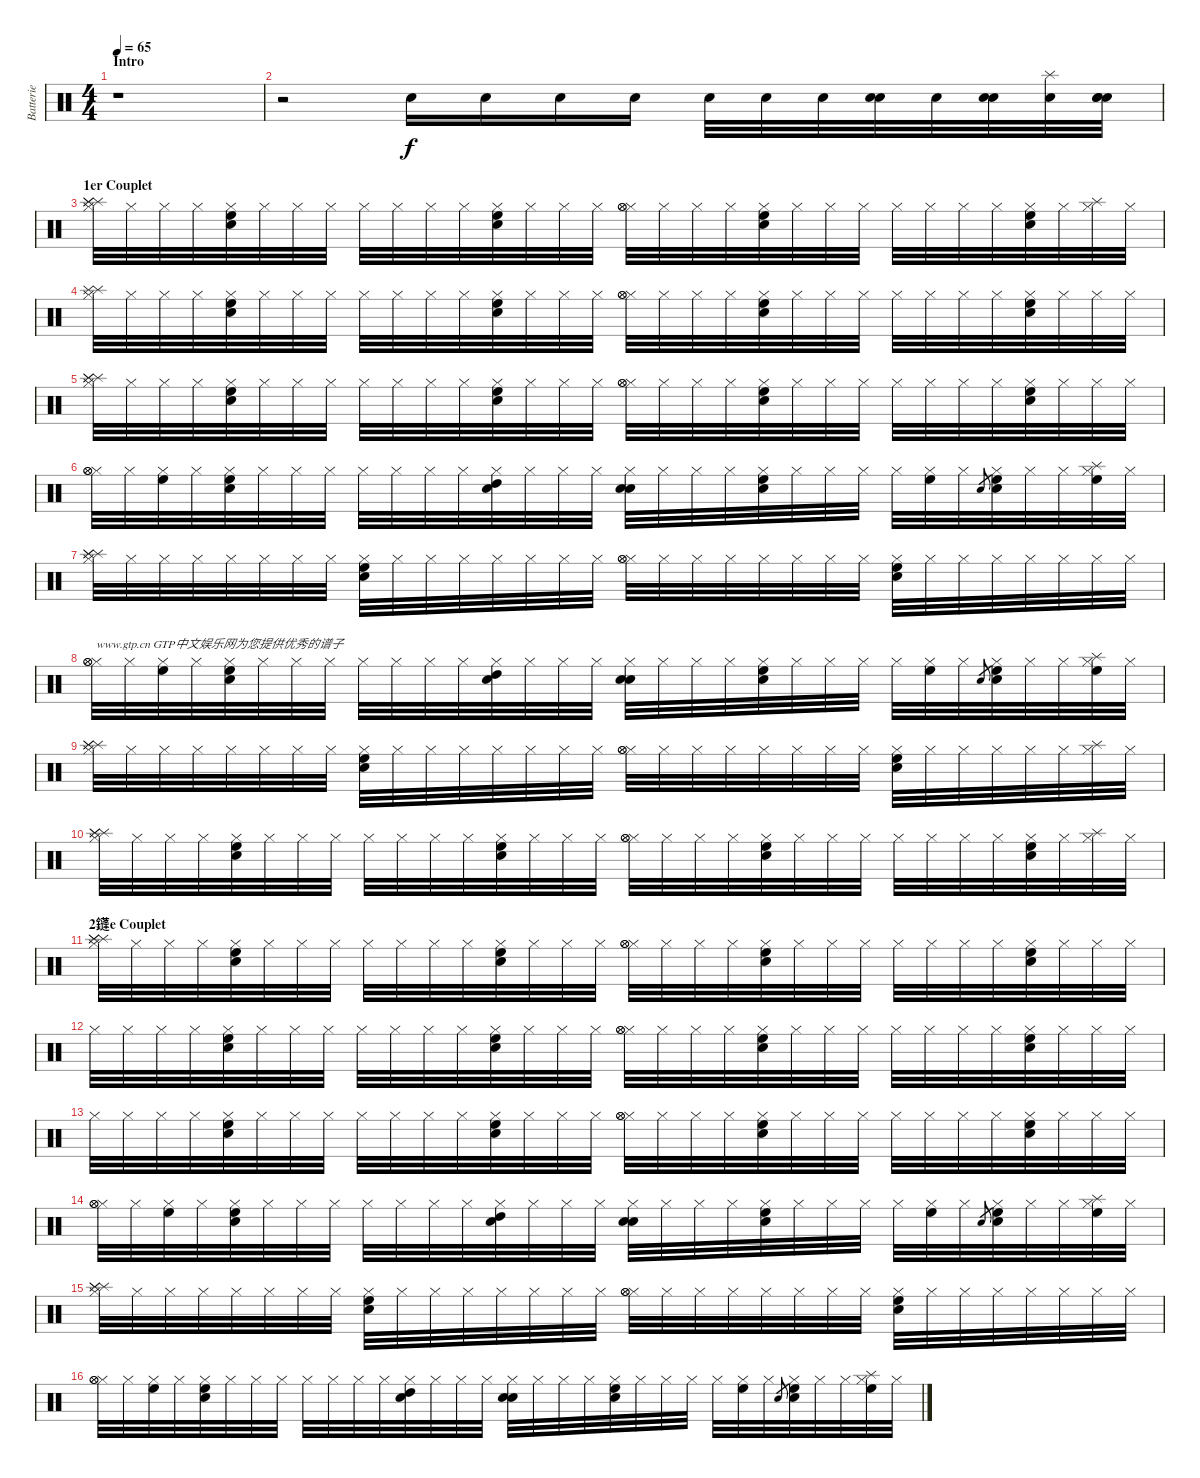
\track ("Batterie" "Batterie") {instrument percussion}
\staff {score}
\articulation defaults
\ts (4 4)
\section ("" "Intro")
\tempo 65
\clef neutral
\ks c
r.1{dy f} |
\section ("" "")
r.2 "Snare (hit) 2".16 "Snare (hit) 2".16 "Snare (hit) 2".16 "Snare (hit) 2".16 "Snare (hit) 2".32 "Snare (hit) 2".32 "Snare (hit) 2".32 ("Snare (hit) 2" "Snare (hit) 2").32 "Snare (hit) 2".32 ("Snare (hit) 2" "Snare (hit) 2").32 ("Snare (hit) 2" "Splash (hit)").32 ("Snare (hit) 2" "Snare (hit) 2" "Snare (hit) 2").32 |
\section ("" "1er Couplet")
("Hi-Hat (closed)" "Splash (hit)" "Splash (hit)" "Splash (hit)").32 "Hi-Hat (closed)".32 "Hi-Hat (closed)".32 "Hi-Hat (closed)".32 ("Hi-Hat (closed)" "Snare (hit) 2" "High Floor Tom (hit)").32 "Hi-Hat (closed)".32 "Hi-Hat (closed)".32 "Hi-Hat (closed)".32 "Hi-Hat (closed)".32 "Hi-Hat (closed)".32 "Hi-Hat (closed)".32 "Hi-Hat (closed)".32 ("Hi-Hat (closed)" "Snare (hit) 2" "High Floor Tom (hit)").32 "Hi-Hat (closed)".32 "Hi-Hat (closed)".32 "Hi-Hat (closed)".32 ("Hi-Hat (closed)" "Hi-Hat (open)" "Hi-Hat (open)").32 "Hi-Hat (closed)".32 "Hi-Hat (closed)".32 "Hi-Hat (closed)".32 ("Hi-Hat (closed)" "Snare (hit) 2" "High Floor Tom (hit)").32 "Hi-Hat (closed)".32 "Hi-Hat (closed)".32 "Hi-Hat (closed)".32 "Hi-Hat (closed)".32 "Hi-Hat (closed)".32 "Hi-Hat (closed)".32 "Hi-Hat (closed)".32 ("Hi-Hat (closed)" "Snare (hit) 2" "High Floor Tom (hit)").32 "Hi-Hat (closed)".32 ("Hi-Hat (closed)" "Splash (hit)").32 "Hi-Hat (closed)".32 |
("Hi-Hat (closed)" "Splash (hit)" "Splash (hit)").32 "Hi-Hat (closed)".32 "Hi-Hat (closed)".32 "Hi-Hat (closed)".32 ("Hi-Hat (closed)" "Snare (hit) 2" "High Floor Tom (hit)").32 "Hi-Hat (closed)".32 "Hi-Hat (closed)".32 "Hi-Hat (closed)".32 "Hi-Hat (closed)".32 "Hi-Hat (closed)".32 "Hi-Hat (closed)".32 "Hi-Hat (closed)".32 ("Hi-Hat (closed)" "Snare (hit) 2" "High Floor Tom (hit)").32 "Hi-Hat (closed)".32 "Hi-Hat (closed)".32 "Hi-Hat (closed)".32 ("Hi-Hat (closed)" "Hi-Hat (open)" "Hi-Hat (open)").32 "Hi-Hat (closed)".32 "Hi-Hat (closed)".32 "Hi-Hat (closed)".32 ("Hi-Hat (closed)" "Snare (hit) 2" "High Floor Tom (hit)").32 "Hi-Hat (closed)".32 "Hi-Hat (closed)".32 "Hi-Hat (closed)".32 "Hi-Hat (closed)".32 "Hi-Hat (closed)".32 "Hi-Hat (closed)".32 "Hi-Hat (closed)".32 ("Hi-Hat (closed)" "Snare (hit) 2" "High Floor Tom (hit)").32 "Hi-Hat (closed)".32 "Hi-Hat (closed)".32 "Hi-Hat (closed)".32 |
("Hi-Hat (closed)" "Splash (hit)" "Splash (hit)" "Splash (hit)").32 "Hi-Hat (closed)".32 "Hi-Hat (closed)".32 "Hi-Hat (closed)".32 ("Hi-Hat (closed)" "Snare (hit) 2" "High Floor Tom (hit)").32 "Hi-Hat (closed)".32 "Hi-Hat (closed)".32 "Hi-Hat (closed)".32 "Hi-Hat (closed)".32 "Hi-Hat (closed)".32 "Hi-Hat (closed)".32 "Hi-Hat (closed)".32 ("Hi-Hat (closed)" "Snare (hit) 2" "High Floor Tom (hit)").32 "Hi-Hat (closed)".32 "Hi-Hat (closed)".32 "Hi-Hat (closed)".32 ("Hi-Hat (closed)" "Hi-Hat (open)" "Hi-Hat (open)").32 "Hi-Hat (closed)".32 "Hi-Hat (closed)".32 "Hi-Hat (closed)".32 ("Hi-Hat (closed)" "Snare (hit) 2" "High Floor Tom (hit)").32 "Hi-Hat (closed)".32 "Hi-Hat (closed)".32 "Hi-Hat (closed)".32 "Hi-Hat (closed)".32 "Hi-Hat (closed)".32 "Hi-Hat (closed)".32 "Hi-Hat (closed)".32 ("Hi-Hat (closed)" "Snare (hit) 2" "High Floor Tom (hit)").32 "Hi-Hat (closed)".32 "Hi-Hat (closed)".32 "Hi-Hat (closed)".32 |
("Hi-Hat (closed)" "Hi-Hat (open)" "Hi-Hat (open)").32 "Hi-Hat (closed)".32 ("Hi-Hat (closed)" "High Floor Tom (hit)").32 "Hi-Hat (closed)".32 ("Hi-Hat (closed)" "Snare (hit) 2" "High Floor Tom (hit)").32 "Hi-Hat (closed)".32 "Hi-Hat (closed)".32 "Hi-Hat (closed)".32 "Hi-Hat (closed)".32 "Hi-Hat (closed)".32 "Hi-Hat (closed)".32 "Hi-Hat (closed)".32 ("Hi-Hat (closed)" "Snare (hit) 2" "High Tom (hit)").32 "Hi-Hat (closed)".32 "Hi-Hat (closed)".32 "Hi-Hat (closed)".32 ("Hi-Hat (closed)" "Snare (hit) 2" "Snare (hit) 2").32 "Hi-Hat (closed)".32 "Hi-Hat (closed)".32 "Hi-Hat (closed)".32 ("Hi-Hat (closed)" "Snare (hit) 2" "High Floor Tom (hit)").32 "Hi-Hat (closed)".32 "Hi-Hat (closed)".32 "Hi-Hat (closed)".32 "Hi-Hat (closed)".32 ("Hi-Hat (closed)" "High Floor Tom (hit)").32 "Hi-Hat (closed)".32 "Snare (hit) 2".8{gr} ("Hi-Hat (closed)" "Snare (hit) 2" "High Floor Tom (hit)").32 "Hi-Hat (closed)".32 "Hi-Hat (closed)".32 ("Hi-Hat (closed)" "Splash (hit)" "High Floor Tom (hit)").32 "Hi-Hat (closed)".32 |
("Hi-Hat (closed)" "Splash (hit)" "Splash (hit)" "Splash (hit)").32 "Hi-Hat (closed)".32 "Hi-Hat (closed)".32 "Hi-Hat (closed)".32 "Hi-Hat (closed)".32 "Hi-Hat (closed)".32 "Hi-Hat (closed)".32 "Hi-Hat (closed)".32 ("Hi-Hat (closed)" "Snare (hit) 2" "High Floor Tom (hit)").32 "Hi-Hat (closed)".32 "Hi-Hat (closed)".32 "Hi-Hat (closed)".32 "Hi-Hat (closed)".32 "Hi-Hat (closed)".32 "Hi-Hat (closed)".32 "Hi-Hat (closed)".32 ("Hi-Hat (closed)" "Hi-Hat (open)" "Hi-Hat (open)").32 "Hi-Hat (closed)".32 "Hi-Hat (closed)".32 "Hi-Hat (closed)".32 "Hi-Hat (closed)".32 "Hi-Hat (closed)".32 "Hi-Hat (closed)".32 "Hi-Hat (closed)".32 ("Hi-Hat (closed)" "Snare (hit) 2" "High Floor Tom (hit)").32 "Hi-Hat (closed)".32 "Hi-Hat (closed)".32 "Hi-Hat (closed)".32 "Hi-Hat (closed)".32 "Hi-Hat (closed)".32 "Hi-Hat (closed)".32 "Hi-Hat (closed)".32 |
("Hi-Hat (closed)" "Hi-Hat (open)" "Hi-Hat (open)").32{txt "www.gtp.cn GTP中文娱乐网为您提供优秀的谱子"} "Hi-Hat (closed)".32 ("Hi-Hat (closed)" "High Floor Tom (hit)").32 "Hi-Hat (closed)".32 ("Hi-Hat (closed)" "Snare (hit) 2" "High Floor Tom (hit)").32 "Hi-Hat (closed)".32 "Hi-Hat (closed)".32 "Hi-Hat (closed)".32 "Hi-Hat (closed)".32 "Hi-Hat (closed)".32 "Hi-Hat (closed)".32 "Hi-Hat (closed)".32 ("Hi-Hat (closed)" "Snare (hit) 2" "High Tom (hit)").32 "Hi-Hat (closed)".32 "Hi-Hat (closed)".32 "Hi-Hat (closed)".32 ("Hi-Hat (closed)" "Snare (hit) 2" "Snare (hit) 2").32 "Hi-Hat (closed)".32 "Hi-Hat (closed)".32 "Hi-Hat (closed)".32 ("Hi-Hat (closed)" "Snare (hit) 2" "High Floor Tom (hit)").32 "Hi-Hat (closed)".32 "Hi-Hat (closed)".32 "Hi-Hat (closed)".32 "Hi-Hat (closed)".32 ("Hi-Hat (closed)" "High Floor Tom (hit)").32 "Hi-Hat (closed)".32 "Snare (hit) 2".8{gr} ("Hi-Hat (closed)" "Snare (hit) 2" "High Floor Tom (hit)").32 "Hi-Hat (closed)".32 "Hi-Hat (closed)".32 ("Hi-Hat (closed)" "Splash (hit)" "High Floor Tom (hit)").32 "Hi-Hat (closed)".32 |
("Hi-Hat (closed)" "Splash (hit)" "Splash (hit)" "Splash (hit)").32 "Hi-Hat (closed)".32 "Hi-Hat (closed)".32 "Hi-Hat (closed)".32 "Hi-Hat (closed)".32 "Hi-Hat (closed)".32 "Hi-Hat (closed)".32 "Hi-Hat (closed)".32 ("Hi-Hat (closed)" "Snare (hit) 2" "High Floor Tom (hit)").32 "Hi-Hat (closed)".32 "Hi-Hat (closed)".32 "Hi-Hat (closed)".32 "Hi-Hat (closed)".32 "Hi-Hat (closed)".32 "Hi-Hat (closed)".32 "Hi-Hat (closed)".32 ("Hi-Hat (closed)" "Hi-Hat (open)" "Hi-Hat (open)").32 "Hi-Hat (closed)".32 "Hi-Hat (closed)".32 "Hi-Hat (closed)".32 "Hi-Hat (closed)".32 "Hi-Hat (closed)".32 "Hi-Hat (closed)".32 "Hi-Hat (closed)".32 ("Hi-Hat (closed)" "Snare (hit) 2" "High Floor Tom (hit)").32 "Hi-Hat (closed)".32 "Hi-Hat (closed)".32 "Hi-Hat (closed)".32 "Hi-Hat (closed)".32 "Hi-Hat (closed)".32 ("Hi-Hat (closed)" "Splash (hit)").32 "Hi-Hat (closed)".32 |
("Hi-Hat (closed)" "Splash (hit)" "Splash (hit)" "Splash (hit)").32 "Hi-Hat (closed)".32 "Hi-Hat (closed)".32 "Hi-Hat (closed)".32 ("Hi-Hat (closed)" "Snare (hit) 2" "High Floor Tom (hit)").32 "Hi-Hat (closed)".32 "Hi-Hat (closed)".32 "Hi-Hat (closed)".32 "Hi-Hat (closed)".32 "Hi-Hat (closed)".32 "Hi-Hat (closed)".32 "Hi-Hat (closed)".32 ("Hi-Hat (closed)" "Snare (hit) 2" "High Floor Tom (hit)").32 "Hi-Hat (closed)".32 "Hi-Hat (closed)".32 "Hi-Hat (closed)".32 ("Hi-Hat (closed)" "Hi-Hat (open)" "Hi-Hat (open)").32 "Hi-Hat (closed)".32 "Hi-Hat (closed)".32 "Hi-Hat (closed)".32 ("Hi-Hat (closed)" "Snare (hit) 2" "High Floor Tom (hit)").32 "Hi-Hat (closed)".32 "Hi-Hat (closed)".32 "Hi-Hat (closed)".32 "Hi-Hat (closed)".32 "Hi-Hat (closed)".32 "Hi-Hat (closed)".32 "Hi-Hat (closed)".32 ("Hi-Hat (closed)" "Snare (hit) 2" "High Floor Tom (hit)").32 "Hi-Hat (closed)".32 ("Hi-Hat (closed)" "Splash (hit)").32 "Hi-Hat (closed)".32 |
\section ("" "2鑝e Couplet")
("Hi-Hat (closed)" "Splash (hit)" "Splash (hit)" "Splash (hit)").32 "Hi-Hat (closed)".32 "Hi-Hat (closed)".32 "Hi-Hat (closed)".32 ("Hi-Hat (closed)" "Snare (hit) 2" "High Floor Tom (hit)").32 "Hi-Hat (closed)".32 "Hi-Hat (closed)".32 "Hi-Hat (closed)".32 "Hi-Hat (closed)".32 "Hi-Hat (closed)".32 "Hi-Hat (closed)".32 "Hi-Hat (closed)".32 ("Hi-Hat (closed)" "Snare (hit) 2" "High Floor Tom (hit)").32 "Hi-Hat (closed)".32 "Hi-Hat (closed)".32 "Hi-Hat (closed)".32 ("Hi-Hat (closed)" "Hi-Hat (open)" "Hi-Hat (open)").32 "Hi-Hat (closed)".32 "Hi-Hat (closed)".32 "Hi-Hat (closed)".32 ("Hi-Hat (closed)" "Snare (hit) 2" "High Floor Tom (hit)").32 "Hi-Hat (closed)".32 "Hi-Hat (closed)".32 "Hi-Hat (closed)".32 "Hi-Hat (closed)".32 "Hi-Hat (closed)".32 "Hi-Hat (closed)".32 "Hi-Hat (closed)".32 ("Hi-Hat (closed)" "Snare (hit) 2" "High Floor Tom (hit)").32 "Hi-Hat (closed)".32 "Hi-Hat (closed)".32 "Hi-Hat (closed)".32 |
"Hi-Hat (closed)".32 "Hi-Hat (closed)".32 "Hi-Hat (closed)".32 "Hi-Hat (closed)".32 ("Hi-Hat (closed)" "Snare (hit) 2" "High Floor Tom (hit)").32 "Hi-Hat (closed)".32 "Hi-Hat (closed)".32 "Hi-Hat (closed)".32 "Hi-Hat (closed)".32 "Hi-Hat (closed)".32 "Hi-Hat (closed)".32 "Hi-Hat (closed)".32 ("Hi-Hat (closed)" "Snare (hit) 2" "High Floor Tom (hit)").32 "Hi-Hat (closed)".32 "Hi-Hat (closed)".32 "Hi-Hat (closed)".32 ("Hi-Hat (closed)" "Hi-Hat (open)" "Hi-Hat (open)").32 "Hi-Hat (closed)".32 "Hi-Hat (closed)".32 "Hi-Hat (closed)".32 ("Hi-Hat (closed)" "Snare (hit) 2" "High Floor Tom (hit)").32 "Hi-Hat (closed)".32 "Hi-Hat (closed)".32 "Hi-Hat (closed)".32 "Hi-Hat (closed)".32 "Hi-Hat (closed)".32 "Hi-Hat (closed)".32 "Hi-Hat (closed)".32 ("Hi-Hat (closed)" "Snare (hit) 2" "High Floor Tom (hit)").32 "Hi-Hat (closed)".32 "Hi-Hat (closed)".32 "Hi-Hat (closed)".32 |
"Hi-Hat (closed)".32 "Hi-Hat (closed)".32 "Hi-Hat (closed)".32 "Hi-Hat (closed)".32 ("Hi-Hat (closed)" "Snare (hit) 2" "High Floor Tom (hit)").32 "Hi-Hat (closed)".32 "Hi-Hat (closed)".32 "Hi-Hat (closed)".32 "Hi-Hat (closed)".32 "Hi-Hat (closed)".32 "Hi-Hat (closed)".32 "Hi-Hat (closed)".32 ("Hi-Hat (closed)" "Snare (hit) 2" "High Floor Tom (hit)").32 "Hi-Hat (closed)".32 "Hi-Hat (closed)".32 "Hi-Hat (closed)".32 ("Hi-Hat (closed)" "Hi-Hat (open)" "Hi-Hat (open)").32 "Hi-Hat (closed)".32 "Hi-Hat (closed)".32 "Hi-Hat (closed)".32 ("Hi-Hat (closed)" "Snare (hit) 2" "High Floor Tom (hit)").32 "Hi-Hat (closed)".32 "Hi-Hat (closed)".32 "Hi-Hat (closed)".32 "Hi-Hat (closed)".32 "Hi-Hat (closed)".32 "Hi-Hat (closed)".32 "Hi-Hat (closed)".32 ("Hi-Hat (closed)" "Snare (hit) 2" "High Floor Tom (hit)").32 "Hi-Hat (closed)".32 "Hi-Hat (closed)".32 "Hi-Hat (closed)".32 |
("Hi-Hat (closed)" "Hi-Hat (open)" "Hi-Hat (open)").32 "Hi-Hat (closed)".32 ("Hi-Hat (closed)" "High Floor Tom (hit)").32 "Hi-Hat (closed)".32 ("Hi-Hat (closed)" "Snare (hit) 2" "High Floor Tom (hit)").32 "Hi-Hat (closed)".32 "Hi-Hat (closed)".32 "Hi-Hat (closed)".32 "Hi-Hat (closed)".32 "Hi-Hat (closed)".32 "Hi-Hat (closed)".32 "Hi-Hat (closed)".32 ("Hi-Hat (closed)" "Snare (hit) 2" "High Tom (hit)").32 "Hi-Hat (closed)".32 "Hi-Hat (closed)".32 "Hi-Hat (closed)".32 ("Hi-Hat (closed)" "Snare (hit) 2" "Snare (hit) 2").32 "Hi-Hat (closed)".32 "Hi-Hat (closed)".32 "Hi-Hat (closed)".32 ("Hi-Hat (closed)" "Snare (hit) 2" "High Floor Tom (hit)").32 "Hi-Hat (closed)".32 "Hi-Hat (closed)".32 "Hi-Hat (closed)".32 "Hi-Hat (closed)".32 ("Hi-Hat (closed)" "High Floor Tom (hit)").32 "Hi-Hat (closed)".32 "Snare (hit) 2".8{gr} ("Hi-Hat (closed)" "Snare (hit) 2" "High Floor Tom (hit)").32 "Hi-Hat (closed)".32 "Hi-Hat (closed)".32 ("Hi-Hat (closed)" "Splash (hit)" "High Floor Tom (hit)").32 "Hi-Hat (closed)".32 |
("Hi-Hat (closed)" "Splash (hit)" "Splash (hit)" "Splash (hit)").32 "Hi-Hat (closed)".32 "Hi-Hat (closed)".32 "Hi-Hat (closed)".32 "Hi-Hat (closed)".32 "Hi-Hat (closed)".32 "Hi-Hat (closed)".32 "Hi-Hat (closed)".32 ("Hi-Hat (closed)" "Snare (hit) 2" "High Floor Tom (hit)").32 "Hi-Hat (closed)".32 "Hi-Hat (closed)".32 "Hi-Hat (closed)".32 "Hi-Hat (closed)".32 "Hi-Hat (closed)".32 "Hi-Hat (closed)".32 "Hi-Hat (closed)".32 ("Hi-Hat (closed)" "Hi-Hat (open)" "Hi-Hat (open)").32 "Hi-Hat (closed)".32 "Hi-Hat (closed)".32 "Hi-Hat (closed)".32 "Hi-Hat (closed)".32 "Hi-Hat (closed)".32 "Hi-Hat (closed)".32 "Hi-Hat (closed)".32 ("Hi-Hat (closed)" "Snare (hit) 2" "High Floor Tom (hit)").32 "Hi-Hat (closed)".32 "Hi-Hat (closed)".32 "Hi-Hat (closed)".32 "Hi-Hat (closed)".32 "Hi-Hat (closed)".32 "Hi-Hat (closed)".32 "Hi-Hat (closed)".32 |
("Hi-Hat (closed)" "Hi-Hat (open)" "Hi-Hat (open)").32 "Hi-Hat (closed)".32 ("Hi-Hat (closed)" "High Floor Tom (hit)").32 "Hi-Hat (closed)".32 ("Hi-Hat (closed)" "Snare (hit) 2" "High Floor Tom (hit)").32 "Hi-Hat (closed)".32 "Hi-Hat (closed)".32 "Hi-Hat (closed)".32 "Hi-Hat (closed)".32 "Hi-Hat (closed)".32 "Hi-Hat (closed)".32 "Hi-Hat (closed)".32 ("Hi-Hat (closed)" "Snare (hit) 2" "High Tom (hit)").32 "Hi-Hat (closed)".32 "Hi-Hat (closed)".32 "Hi-Hat (closed)".32 ("Hi-Hat (closed)" "Snare (hit) 2" "Snare (hit) 2").32 "Hi-Hat (closed)".32 "Hi-Hat (closed)".32 "Hi-Hat (closed)".32 ("Hi-Hat (closed)" "Snare (hit) 2" "High Floor Tom (hit)").32 "Hi-Hat (closed)".32 "Hi-Hat (closed)".32 "Hi-Hat (closed)".32 "Hi-Hat (closed)".32 ("Hi-Hat (closed)" "High Floor Tom (hit)").32 "Hi-Hat (closed)".32 "Snare (hit) 2".8{gr} ("Hi-Hat (closed)" "Snare (hit) 2" "High Floor Tom (hit)").32 "Hi-Hat (closed)".32 "Hi-Hat (closed)".32 ("Hi-Hat (closed)" "Splash (hit)" "High Floor Tom (hit)").32 "Hi-Hat (closed)".32
